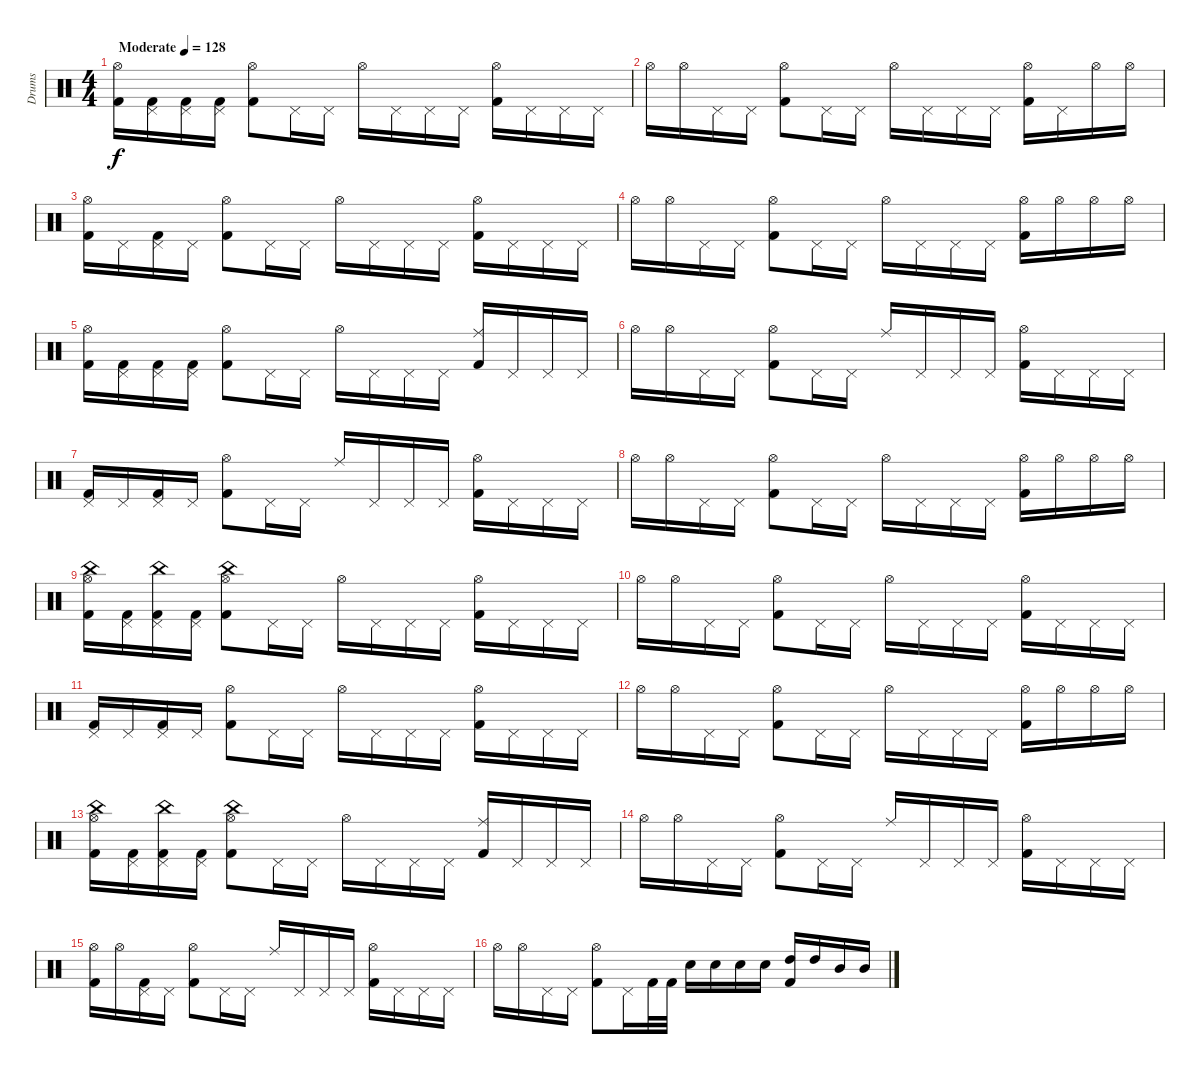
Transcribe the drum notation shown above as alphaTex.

\track ("Drums" "Drums") {instrument percussion}
\staff {score}
\articulation defaults
\ts (4 4)
\tempo (128 "Moderate")
\clef neutral
\ks c
("Hi-Hat (open)" "Kick (hit) 2").16{dy f} ("Pedal Hi-Hat (hit)" "Kick (hit) 2").16 ("Pedal Hi-Hat (hit)" "Kick (hit) 2").16 ("Pedal Hi-Hat (hit)" "Kick (hit) 2").16 ("Hi-Hat (open)" "Kick (hit) 2").8 "Pedal Hi-Hat (hit)".16 "Pedal Hi-Hat (hit)".16 "Hi-Hat (open)".16 "Pedal Hi-Hat (hit)".16 "Pedal Hi-Hat (hit)".16 "Pedal Hi-Hat (hit)".16 ("Hi-Hat (open)" "Kick (hit) 2").16 "Pedal Hi-Hat (hit)".16 "Pedal Hi-Hat (hit)".16 "Pedal Hi-Hat (hit)".16 |
"Hi-Hat (open)".16 "Hi-Hat (open)".16 "Pedal Hi-Hat (hit)".16 "Pedal Hi-Hat (hit)".16 ("Hi-Hat (open)" "Kick (hit) 2").8 "Pedal Hi-Hat (hit)".16 "Pedal Hi-Hat (hit)".16 "Hi-Hat (open)".16 "Pedal Hi-Hat (hit)".16 "Pedal Hi-Hat (hit)".16 "Pedal Hi-Hat (hit)".16 ("Hi-Hat (open)" "Kick (hit) 2").16 "Pedal Hi-Hat (hit)".16 "Hi-Hat (open)".16 "Hi-Hat (open)".16 |
("Hi-Hat (open)" "Kick (hit) 2").16 "Pedal Hi-Hat (hit)".16 ("Pedal Hi-Hat (hit)" "Kick (hit) 2").16 "Pedal Hi-Hat (hit)".16 ("Hi-Hat (open)" "Kick (hit) 2").8 "Pedal Hi-Hat (hit)".16 "Pedal Hi-Hat (hit)".16 "Hi-Hat (open)".16 "Pedal Hi-Hat (hit)".16 "Pedal Hi-Hat (hit)".16 "Pedal Hi-Hat (hit)".16 ("Hi-Hat (open)" "Kick (hit) 2").16 "Pedal Hi-Hat (hit)".16 "Pedal Hi-Hat (hit)".16 "Pedal Hi-Hat (hit)".16 |
"Hi-Hat (open)".16 "Hi-Hat (open)".16 "Pedal Hi-Hat (hit)".16 "Pedal Hi-Hat (hit)".16 ("Hi-Hat (open)" "Kick (hit) 2").8 "Pedal Hi-Hat (hit)".16 "Pedal Hi-Hat (hit)".16 "Hi-Hat (open)".16 "Pedal Hi-Hat (hit)".16 "Pedal Hi-Hat (hit)".16 "Pedal Hi-Hat (hit)".16 ("Hi-Hat (open)" "Kick (hit) 2").16 "Hi-Hat (open)".16 "Hi-Hat (open)".16 "Hi-Hat (open)".16 |
("Hi-Hat (open)" "Kick (hit) 2").16 ("Pedal Hi-Hat (hit)" "Kick (hit) 2").16 ("Pedal Hi-Hat (hit)" "Kick (hit) 2").16 ("Pedal Hi-Hat (hit)" "Kick (hit) 2").16 ("Hi-Hat (open)" "Kick (hit) 2").8 "Pedal Hi-Hat (hit)".16 "Pedal Hi-Hat (hit)".16 "Hi-Hat (open)".16 "Pedal Hi-Hat (hit)".16 "Pedal Hi-Hat (hit)".16 "Pedal Hi-Hat (hit)".16 ("Ride (middle)" "Kick (hit) 2").16 "Pedal Hi-Hat (hit)".16 "Pedal Hi-Hat (hit)".16 "Pedal Hi-Hat (hit)".16 |
"Hi-Hat (open)".16 "Hi-Hat (open)".16 "Pedal Hi-Hat (hit)".16 "Pedal Hi-Hat (hit)".16 ("Hi-Hat (open)" "Kick (hit) 2").8 "Pedal Hi-Hat (hit)".16 "Pedal Hi-Hat (hit)".16 "Ride (middle)".16 "Pedal Hi-Hat (hit)".16 "Pedal Hi-Hat (hit)".16 "Pedal Hi-Hat (hit)".16 ("Hi-Hat (open)" "Kick (hit) 2").16 "Pedal Hi-Hat (hit)".16 "Pedal Hi-Hat (hit)".16 "Pedal Hi-Hat (hit)".16 |
("Pedal Hi-Hat (hit)" "Kick (hit) 2").16 "Pedal Hi-Hat (hit)".16 ("Pedal Hi-Hat (hit)" "Kick (hit) 2").16 "Pedal Hi-Hat (hit)".16 ("Hi-Hat (open)" "Kick (hit) 2").8 "Pedal Hi-Hat (hit)".16 "Pedal Hi-Hat (hit)".16 "Ride (middle)".16 "Pedal Hi-Hat (hit)".16 "Pedal Hi-Hat (hit)".16 "Pedal Hi-Hat (hit)".16 ("Hi-Hat (open)" "Kick (hit) 2").16 "Pedal Hi-Hat (hit)".16 "Pedal Hi-Hat (hit)".16 "Pedal Hi-Hat (hit)".16 |
"Hi-Hat (open)".16 "Hi-Hat (open)".16 "Pedal Hi-Hat (hit)".16 "Pedal Hi-Hat (hit)".16 ("Hi-Hat (open)" "Kick (hit) 2").8 "Pedal Hi-Hat (hit)".16 "Pedal Hi-Hat (hit)".16 "Hi-Hat (open)".16 "Pedal Hi-Hat (hit)".16 "Pedal Hi-Hat (hit)".16 "Pedal Hi-Hat (hit)".16 ("Hi-Hat (open)" "Kick (hit) 2").16 "Hi-Hat (open)".16 "Hi-Hat (open)".16 "Hi-Hat (open)".16 |
("China (hit)" "Hi-Hat (open)" "Kick (hit) 2").16 ("Pedal Hi-Hat (hit)" "Kick (hit) 2").16 ("China (hit)" "Pedal Hi-Hat (hit)" "Kick (hit) 2").16 ("Pedal Hi-Hat (hit)" "Kick (hit) 2").16 ("China (hit)" "Hi-Hat (open)" "Kick (hit) 2").8 "Pedal Hi-Hat (hit)".16 "Pedal Hi-Hat (hit)".16 "Hi-Hat (open)".16 "Pedal Hi-Hat (hit)".16 "Pedal Hi-Hat (hit)".16 "Pedal Hi-Hat (hit)".16 ("Hi-Hat (open)" "Kick (hit) 2").16 "Pedal Hi-Hat (hit)".16 "Pedal Hi-Hat (hit)".16 "Pedal Hi-Hat (hit)".16 |
"Hi-Hat (open)".16 "Hi-Hat (open)".16 "Pedal Hi-Hat (hit)".16 "Pedal Hi-Hat (hit)".16 ("Hi-Hat (open)" "Kick (hit) 2").8 "Pedal Hi-Hat (hit)".16 "Pedal Hi-Hat (hit)".16 "Hi-Hat (open)".16 "Pedal Hi-Hat (hit)".16 "Pedal Hi-Hat (hit)".16 "Pedal Hi-Hat (hit)".16 ("Hi-Hat (open)" "Kick (hit) 2").16 "Pedal Hi-Hat (hit)".16 "Pedal Hi-Hat (hit)".16 "Pedal Hi-Hat (hit)".16 |
("Pedal Hi-Hat (hit)" "Kick (hit) 2").16 "Pedal Hi-Hat (hit)".16 ("Pedal Hi-Hat (hit)" "Kick (hit) 2").16 "Pedal Hi-Hat (hit)".16 ("Hi-Hat (open)" "Kick (hit) 2").8 "Pedal Hi-Hat (hit)".16 "Pedal Hi-Hat (hit)".16 "Hi-Hat (open)".16 "Pedal Hi-Hat (hit)".16 "Pedal Hi-Hat (hit)".16 "Pedal Hi-Hat (hit)".16 ("Hi-Hat (open)" "Kick (hit) 2").16 "Pedal Hi-Hat (hit)".16 "Pedal Hi-Hat (hit)".16 "Pedal Hi-Hat (hit)".16 |
"Hi-Hat (open)".16 "Hi-Hat (open)".16 "Pedal Hi-Hat (hit)".16 "Pedal Hi-Hat (hit)".16 ("Hi-Hat (open)" "Kick (hit) 2").8 "Pedal Hi-Hat (hit)".16 "Pedal Hi-Hat (hit)".16 "Hi-Hat (open)".16 "Pedal Hi-Hat (hit)".16 "Pedal Hi-Hat (hit)".16 "Pedal Hi-Hat (hit)".16 ("Hi-Hat (open)" "Kick (hit) 2").16 "Hi-Hat (open)".16 "Hi-Hat (open)".16 "Hi-Hat (open)".16 |
("China (hit)" "Hi-Hat (open)" "Kick (hit) 2").16 ("Pedal Hi-Hat (hit)" "Kick (hit) 2").16 ("China (hit)" "Pedal Hi-Hat (hit)" "Kick (hit) 2").16 ("Pedal Hi-Hat (hit)" "Kick (hit) 2").16 ("China (hit)" "Hi-Hat (open)" "Kick (hit) 2").8 "Pedal Hi-Hat (hit)".16 "Pedal Hi-Hat (hit)".16 "Hi-Hat (open)".16 "Pedal Hi-Hat (hit)".16 "Pedal Hi-Hat (hit)".16 "Pedal Hi-Hat (hit)".16 ("Ride (middle)" "Kick (hit) 2").16 "Pedal Hi-Hat (hit)".16 "Pedal Hi-Hat (hit)".16 "Pedal Hi-Hat (hit)".16 |
"Hi-Hat (open)".16 "Hi-Hat (open)".16 "Pedal Hi-Hat (hit)".16 "Pedal Hi-Hat (hit)".16 ("Hi-Hat (open)" "Kick (hit) 2").8 "Pedal Hi-Hat (hit)".16 "Pedal Hi-Hat (hit)".16 "Ride (middle)".16 "Pedal Hi-Hat (hit)".16 "Pedal Hi-Hat (hit)".16 "Pedal Hi-Hat (hit)".16 ("Hi-Hat (open)" "Kick (hit) 2").16 "Pedal Hi-Hat (hit)".16 "Pedal Hi-Hat (hit)".16 "Pedal Hi-Hat (hit)".16 |
("Hi-Hat (open)" "Kick (hit) 2").16 "Hi-Hat (open)".16 ("Pedal Hi-Hat (hit)" "Kick (hit) 2").16 "Pedal Hi-Hat (hit)".16 ("Hi-Hat (open)" "Kick (hit) 2").8 "Pedal Hi-Hat (hit)".16 "Pedal Hi-Hat (hit)".16 "Ride (middle)".16 "Pedal Hi-Hat (hit)".16 "Pedal Hi-Hat (hit)".16 "Pedal Hi-Hat (hit)".16 ("Hi-Hat (open)" "Kick (hit) 2").16 "Pedal Hi-Hat (hit)".16 "Pedal Hi-Hat (hit)".16 "Pedal Hi-Hat (hit)".16 |
"Hi-Hat (open)".16 "Hi-Hat (open)".16 "Pedal Hi-Hat (hit)".16 "Pedal Hi-Hat (hit)".16 ("Hi-Hat (open)" "Kick (hit) 2").8 "Pedal Hi-Hat (hit)".16 "Kick (hit) 2".32 "Kick (hit) 2".32 "Snare (hit) 2".16 "Snare (hit) 2".16 "Snare (hit) 2".16 "Snare (hit) 2".16 ("High Tom (hit)" "Kick (hit) 2").16 "High Tom (hit)".16 "Mid Tom (hit)".16 "Mid Tom (hit)".16
